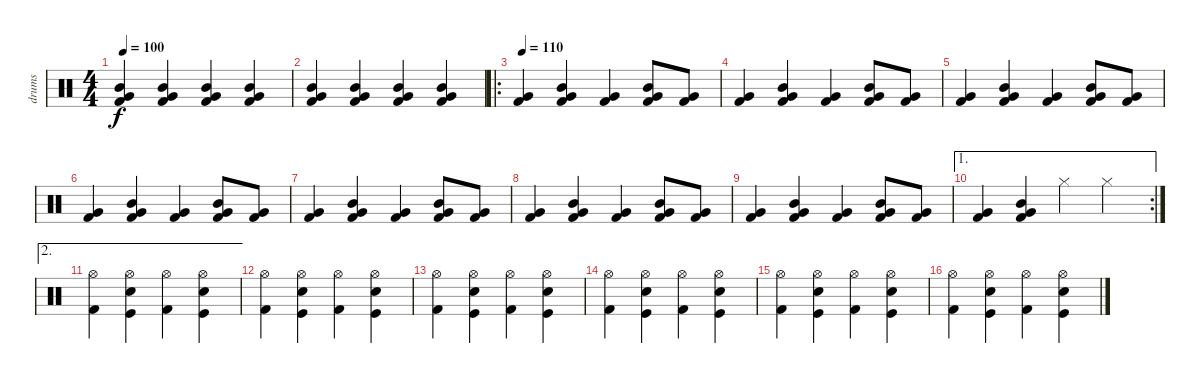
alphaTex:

\track ("drums" "drums") {instrument percussion}
\staff {score}
\articulation defaults
\ts (4 4)
\tempo 100
\clef neutral
\ks c
("Mid Tom (hit)" "Very Low Tom (hit)" "Kick (hit) 2").4{dy f} ("Mid Tom (hit)" "Very Low Tom (hit)" "Kick (hit) 2").4 ("Mid Tom (hit)" "Very Low Tom (hit)" "Kick (hit) 2").4 ("Mid Tom (hit)" "Very Low Tom (hit)" "Kick (hit) 2").4 |
("Mid Tom (hit)" "Very Low Tom (hit)" "Kick (hit) 2").4 ("Mid Tom (hit)" "Very Low Tom (hit)" "Kick (hit) 2").4 ("Mid Tom (hit)" "Very Low Tom (hit)" "Kick (hit) 2").4 ("Mid Tom (hit)" "Very Low Tom (hit)" "Kick (hit) 2").4 |
\ro
\tempo 110
("Very Low Tom (hit)" "Kick (hit) 2").4 ("Mid Tom (hit)" "Very Low Tom (hit)" "Kick (hit) 2").4 ("Very Low Tom (hit)" "Kick (hit) 2").4 ("Mid Tom (hit)" "Very Low Tom (hit)" "Kick (hit) 2").8 ("Very Low Tom (hit)" "Kick (hit) 2").8 |
("Very Low Tom (hit)" "Kick (hit) 2").4 ("Mid Tom (hit)" "Very Low Tom (hit)" "Kick (hit) 2").4 ("Very Low Tom (hit)" "Kick (hit) 2").4 ("Mid Tom (hit)" "Very Low Tom (hit)" "Kick (hit) 2").8 ("Very Low Tom (hit)" "Kick (hit) 2").8 |
("Very Low Tom (hit)" "Kick (hit) 2").4 ("Mid Tom (hit)" "Very Low Tom (hit)" "Kick (hit) 2").4 ("Very Low Tom (hit)" "Kick (hit) 2").4 ("Mid Tom (hit)" "Very Low Tom (hit)" "Kick (hit) 2").8 ("Very Low Tom (hit)" "Kick (hit) 2").8 |
("Very Low Tom (hit)" "Kick (hit) 2").4 ("Mid Tom (hit)" "Very Low Tom (hit)" "Kick (hit) 2").4 ("Very Low Tom (hit)" "Kick (hit) 2").4 ("Mid Tom (hit)" "Very Low Tom (hit)" "Kick (hit) 2").8 ("Very Low Tom (hit)" "Kick (hit) 2").8 |
("Very Low Tom (hit)" "Kick (hit) 2").4 ("Mid Tom (hit)" "Very Low Tom (hit)" "Kick (hit) 2").4 ("Very Low Tom (hit)" "Kick (hit) 2").4 ("Mid Tom (hit)" "Very Low Tom (hit)" "Kick (hit) 2").8 ("Very Low Tom (hit)" "Kick (hit) 2").8 |
("Very Low Tom (hit)" "Kick (hit) 2").4 ("Mid Tom (hit)" "Very Low Tom (hit)" "Kick (hit) 2").4 ("Very Low Tom (hit)" "Kick (hit) 2").4 ("Mid Tom (hit)" "Very Low Tom (hit)" "Kick (hit) 2").8 ("Very Low Tom (hit)" "Kick (hit) 2").8 |
("Very Low Tom (hit)" "Kick (hit) 2").4 ("Mid Tom (hit)" "Very Low Tom (hit)" "Kick (hit) 2").4 ("Very Low Tom (hit)" "Kick (hit) 2").4 ("Mid Tom (hit)" "Very Low Tom (hit)" "Kick (hit) 2").8 ("Very Low Tom (hit)" "Kick (hit) 2").8 |
\ae 1
\rc 2
("Very Low Tom (hit)" "Kick (hit) 2").4 ("Mid Tom (hit)" "Very Low Tom (hit)" "Kick (hit) 2").4 "Hi-Hat (closed)".4 "Hi-Hat (closed)".4 |
\ae 2
("Hi-Hat (open)" "Kick (hit) 2").4 ("Hi-Hat (open)" "Snare (hit) 2" "Kick (hit)").4 ("Hi-Hat (open)" "Kick (hit) 2").4 ("Hi-Hat (open)" "Snare (hit) 2" "Kick (hit)").4 |
("Hi-Hat (open)" "Kick (hit) 2").4 ("Hi-Hat (open)" "Snare (hit) 2" "Kick (hit)").4 ("Hi-Hat (open)" "Kick (hit) 2").4 ("Hi-Hat (open)" "Snare (hit) 2" "Kick (hit)").4 |
("Hi-Hat (open)" "Kick (hit) 2").4 ("Hi-Hat (open)" "Snare (hit) 2" "Kick (hit)").4 ("Hi-Hat (open)" "Kick (hit) 2").4 ("Hi-Hat (open)" "Snare (hit) 2" "Kick (hit)").4 |
("Hi-Hat (open)" "Kick (hit) 2").4 ("Hi-Hat (open)" "Snare (hit) 2" "Kick (hit)").4 ("Hi-Hat (open)" "Kick (hit) 2").4 ("Hi-Hat (open)" "Snare (hit) 2" "Kick (hit)").4 |
("Hi-Hat (open)" "Kick (hit) 2").4 ("Hi-Hat (open)" "Snare (hit) 2" "Kick (hit)").4 ("Hi-Hat (open)" "Kick (hit) 2").4 ("Hi-Hat (open)" "Snare (hit) 2" "Kick (hit)").4 |
("Hi-Hat (open)" "Kick (hit) 2").4 ("Hi-Hat (open)" "Snare (hit) 2" "Kick (hit)").4 ("Hi-Hat (open)" "Kick (hit) 2").4 ("Hi-Hat (open)" "Snare (hit) 2" "Kick (hit)").4
